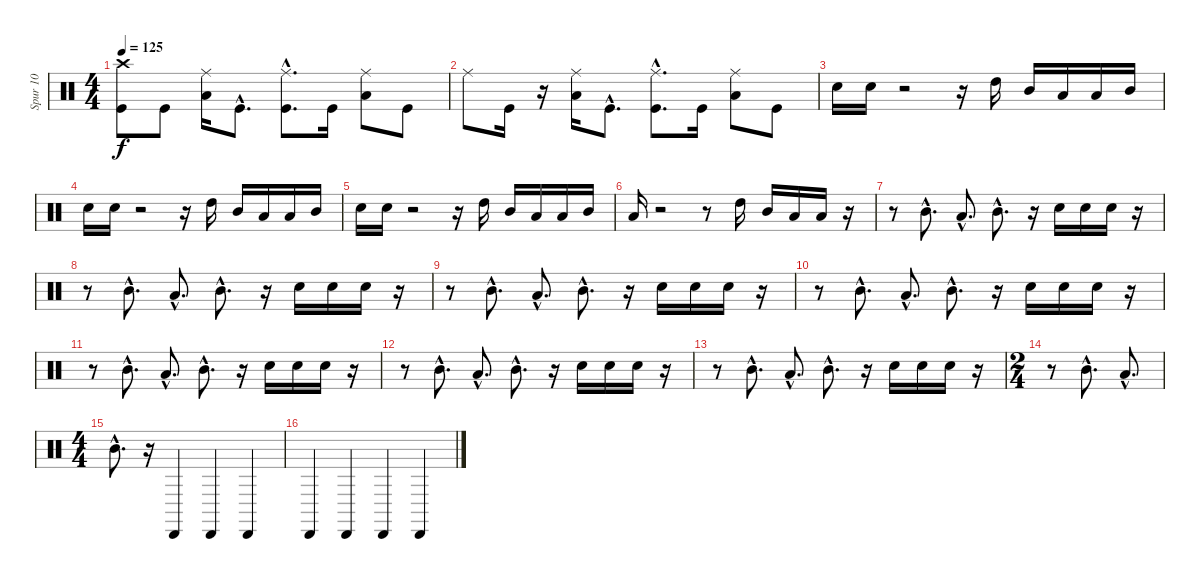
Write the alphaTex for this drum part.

\track ("Spur 10" "Spur 10") {instrument percussion}
\staff {score}
\articulation defaults
\ts (4 4)
\tempo 125
\clef neutral
\ks c
("Crash high (hit)" "Kick (hit)").8{dy f} "Kick (hit)".8 ("Ride (middle)" "Low Tom (hit)").16 "Kick (hit)"{hac}.8{d} ("Kick (hit)"{hac} "Ride (middle)").8{d} "Kick (hit)".16 ("Low Tom (hit)" "Ride (middle)").8 "Kick (hit)".8 |
"Ride (middle)".8 "Kick (hit)".16 r.16 ("Ride (middle)" "Low Tom (hit)").16 "Kick (hit)"{hac}.8{d} ("Kick (hit)"{hac} "Ride (middle)").8{d} "Kick (hit)".16 ("Ride (middle)" "Low Tom (hit)").8 "Kick (hit)".8 |
"Electric Snare (hit)".16 "Electric Snare (hit)".16 r.2 r.16 "High Tom (hit)".16 "Mid Tom (hit)".16 "Low Tom (hit)".16 "Low Tom (hit)".16 "Mid Tom (hit)".16 |
"Electric Snare (hit)".16 "Electric Snare (hit)".16 r.2 r.16 "High Tom (hit)".16 "Mid Tom (hit)".16 "Low Tom (hit)".16 "Low Tom (hit)".16 "Mid Tom (hit)".16 |
"Electric Snare (hit)".16 "Electric Snare (hit)".16 r.2 r.16 "High Tom (hit)".16 "Mid Tom (hit)".16 "Low Tom (hit)".16 "Low Tom (hit)".16 "Mid Tom (hit)".16 |
"Low Tom (hit)".16 r.2 r.8 "High Tom (hit)".16 "Mid Tom (hit)".16 "Low Tom (hit)".16 "Low Tom (hit)".16 r.16 |
r.8 "Mid Tom (hit)"{hac}.8{d} "Low Tom (hit)"{hac}.8{d} "Mid Tom (hit)"{hac}.8{d} r.16 "Electric Snare (hit)".16 "Electric Snare (hit)".16 "Electric Snare (hit)".16 r.16 |
r.8 "Mid Tom (hit)"{hac}.8{d} "Low Tom (hit)"{hac}.8{d} "Mid Tom (hit)"{hac}.8{d} r.16 "Electric Snare (hit)".16 "Electric Snare (hit)".16 "Electric Snare (hit)".16 r.16 |
r.8 "Mid Tom (hit)"{hac}.8{d} "Low Tom (hit)"{hac}.8{d} "Mid Tom (hit)"{hac}.8{d} r.16 "Electric Snare (hit)".16 "Electric Snare (hit)".16 "Electric Snare (hit)".16 r.16 |
r.8 "Mid Tom (hit)"{hac}.8{d} "Low Tom (hit)"{hac}.8{d} "Mid Tom (hit)"{hac}.8{d} r.16 "Electric Snare (hit)".16 "Electric Snare (hit)".16 "Electric Snare (hit)".16 r.16 |
r.8 "Mid Tom (hit)"{hac}.8{d} "Low Tom (hit)"{hac}.8{d} "Mid Tom (hit)"{hac}.8{d} r.16 "Electric Snare (hit)".16 "Electric Snare (hit)".16 "Electric Snare (hit)".16 r.16 |
r.8 "Mid Tom (hit)"{hac}.8{d} "Low Tom (hit)"{hac}.8{d} "Mid Tom (hit)"{hac}.8{d} r.16 "Electric Snare (hit)".16 "Electric Snare (hit)".16 "Electric Snare (hit)".16 r.16 |
r.8 "Mid Tom (hit)"{hac}.8{d} "Low Tom (hit)"{hac}.8{d} "Mid Tom (hit)"{hac}.8{d} r.16 "Electric Snare (hit)".16 "Electric Snare (hit)".16 "Electric Snare (hit)".16 r.16 |
\ts (2 4)
r.8 "Mid Tom (hit)"{hac}.8{d} "Low Tom (hit)"{hac}.8{d} |
\ts (4 4)
"Mid Tom (hit)"{hac}.8{d} r.16 "Cabasa (hit)".4 "Cabasa (hit)".4 "Cabasa (hit)".4 |
"Cabasa (hit)".4 "Cabasa (hit)".4 "Cabasa (hit)".4 "Cabasa (hit)".4
